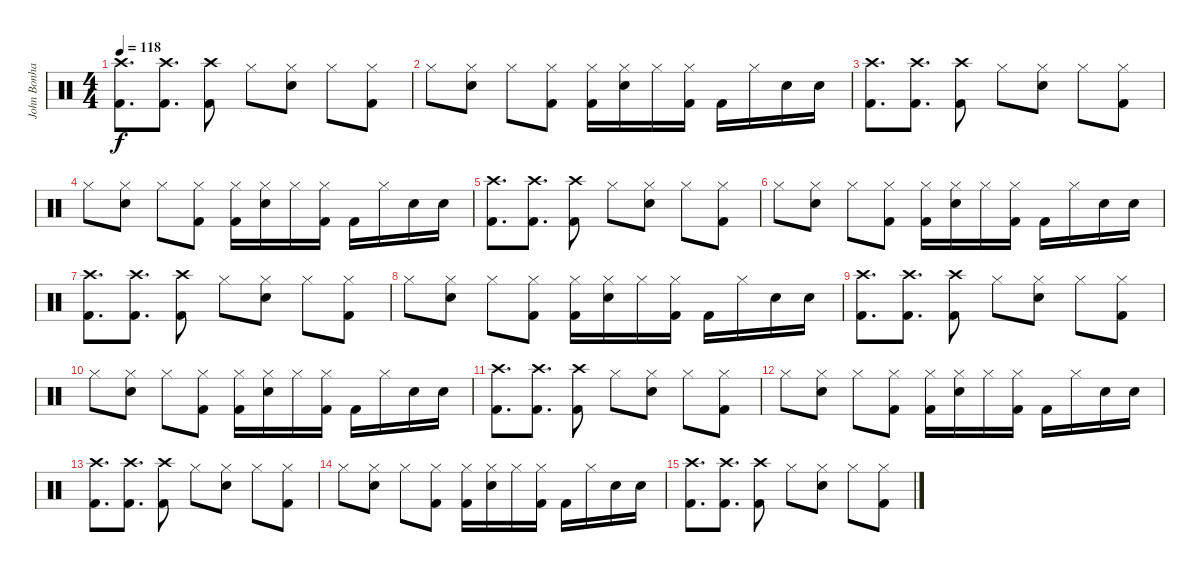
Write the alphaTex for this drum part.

\track ("John Bonham (Bateria)" "John Bonha") {instrument percussion}
\staff {score}
\articulation defaults
\ts (4 4)
\tempo 118
\clef neutral
\ks c
("Crash high (hit)" "Kick (hit) 2").8{d dy f} ("Kick (hit) 2" "Crash high (hit)").8{d} ("Kick (hit) 2" "Crash high (hit)").8 "Hi-Hat (closed)".8 ("Snare (hit) 2" "Hi-Hat (closed)").8 "Hi-Hat (closed)".8 ("Hi-Hat (closed)" "Kick (hit) 2").8 |
"Hi-Hat (closed)".8 ("Hi-Hat (closed)" "Snare (hit) 2").8 "Hi-Hat (closed)".8 ("Kick (hit) 2" "Hi-Hat (closed)").8 ("Kick (hit) 2" "Hi-Hat (closed)").16 ("Hi-Hat (closed)" "Snare (hit) 2").16 "Hi-Hat (closed)".16 ("Kick (hit) 2" "Hi-Hat (closed)").16 "Kick (hit) 2".16 "Hi-Hat (closed)".16 "Snare (hit) 2".16 "Snare (hit) 2".16 |
("Crash high (hit)" "Kick (hit) 2").8{d} ("Kick (hit) 2" "Crash high (hit)").8{d} ("Kick (hit) 2" "Crash high (hit)").8 "Hi-Hat (closed)".8 ("Snare (hit) 2" "Hi-Hat (closed)").8 "Hi-Hat (closed)".8 ("Hi-Hat (closed)" "Kick (hit) 2").8 |
"Hi-Hat (closed)".8 ("Hi-Hat (closed)" "Snare (hit) 2").8 "Hi-Hat (closed)".8 ("Kick (hit) 2" "Hi-Hat (closed)").8 ("Kick (hit) 2" "Hi-Hat (closed)").16 ("Hi-Hat (closed)" "Snare (hit) 2").16 "Hi-Hat (closed)".16 ("Kick (hit) 2" "Hi-Hat (closed)").16 "Kick (hit) 2".16 "Hi-Hat (closed)".16 "Snare (hit) 2".16 "Snare (hit) 2".16 |
("Crash high (hit)" "Kick (hit) 2").8{d} ("Kick (hit) 2" "Crash high (hit)").8{d} ("Kick (hit) 2" "Crash high (hit)").8 "Hi-Hat (closed)".8 ("Snare (hit) 2" "Hi-Hat (closed)").8 "Hi-Hat (closed)".8 ("Hi-Hat (closed)" "Kick (hit) 2").8 |
"Hi-Hat (closed)".8 ("Hi-Hat (closed)" "Snare (hit) 2").8 "Hi-Hat (closed)".8 ("Kick (hit) 2" "Hi-Hat (closed)").8 ("Kick (hit) 2" "Hi-Hat (closed)").16 ("Hi-Hat (closed)" "Snare (hit) 2").16 "Hi-Hat (closed)".16 ("Kick (hit) 2" "Hi-Hat (closed)").16 "Kick (hit) 2".16 "Hi-Hat (closed)".16 "Snare (hit) 2".16 "Snare (hit) 2".16 |
("Crash high (hit)" "Kick (hit) 2").8{d} ("Kick (hit) 2" "Crash high (hit)").8{d} ("Kick (hit) 2" "Crash high (hit)").8 "Hi-Hat (closed)".8 ("Snare (hit) 2" "Hi-Hat (closed)").8 "Hi-Hat (closed)".8 ("Hi-Hat (closed)" "Kick (hit) 2").8 |
"Hi-Hat (closed)".8 ("Hi-Hat (closed)" "Snare (hit) 2").8 "Hi-Hat (closed)".8 ("Kick (hit) 2" "Hi-Hat (closed)").8 ("Kick (hit) 2" "Hi-Hat (closed)").16 ("Hi-Hat (closed)" "Snare (hit) 2").16 "Hi-Hat (closed)".16 ("Kick (hit) 2" "Hi-Hat (closed)").16 "Kick (hit) 2".16 "Hi-Hat (closed)".16 "Snare (hit) 2".16 "Snare (hit) 2".16 |
("Crash high (hit)" "Kick (hit) 2").8{d} ("Kick (hit) 2" "Crash high (hit)").8{d} ("Kick (hit) 2" "Crash high (hit)").8 "Hi-Hat (closed)".8 ("Snare (hit) 2" "Hi-Hat (closed)").8 "Hi-Hat (closed)".8 ("Hi-Hat (closed)" "Kick (hit) 2").8 |
"Hi-Hat (closed)".8 ("Hi-Hat (closed)" "Snare (hit) 2").8 "Hi-Hat (closed)".8 ("Kick (hit) 2" "Hi-Hat (closed)").8 ("Kick (hit) 2" "Hi-Hat (closed)").16 ("Hi-Hat (closed)" "Snare (hit) 2").16 "Hi-Hat (closed)".16 ("Kick (hit) 2" "Hi-Hat (closed)").16 "Kick (hit) 2".16 "Hi-Hat (closed)".16 "Snare (hit) 2".16 "Snare (hit) 2".16 |
("Crash high (hit)" "Kick (hit) 2").8{d} ("Kick (hit) 2" "Crash high (hit)").8{d} ("Kick (hit) 2" "Crash high (hit)").8 "Hi-Hat (closed)".8 ("Snare (hit) 2" "Hi-Hat (closed)").8 "Hi-Hat (closed)".8 ("Hi-Hat (closed)" "Kick (hit) 2").8 |
"Hi-Hat (closed)".8 ("Hi-Hat (closed)" "Snare (hit) 2").8 "Hi-Hat (closed)".8 ("Kick (hit) 2" "Hi-Hat (closed)").8 ("Kick (hit) 2" "Hi-Hat (closed)").16 ("Hi-Hat (closed)" "Snare (hit) 2").16 "Hi-Hat (closed)".16 ("Kick (hit) 2" "Hi-Hat (closed)").16 "Kick (hit) 2".16 "Hi-Hat (closed)".16 "Snare (hit) 2".16 "Snare (hit) 2".16 |
("Crash high (hit)" "Kick (hit) 2").8{d} ("Kick (hit) 2" "Crash high (hit)").8{d} ("Kick (hit) 2" "Crash high (hit)").8 "Hi-Hat (closed)".8 ("Snare (hit) 2" "Hi-Hat (closed)").8 "Hi-Hat (closed)".8 ("Hi-Hat (closed)" "Kick (hit) 2").8 |
"Hi-Hat (closed)".8 ("Hi-Hat (closed)" "Snare (hit) 2").8 "Hi-Hat (closed)".8 ("Kick (hit) 2" "Hi-Hat (closed)").8 ("Kick (hit) 2" "Hi-Hat (closed)").16 ("Hi-Hat (closed)" "Snare (hit) 2").16 "Hi-Hat (closed)".16 ("Kick (hit) 2" "Hi-Hat (closed)").16 "Kick (hit) 2".16 "Hi-Hat (closed)".16 "Snare (hit) 2".16 "Snare (hit) 2".16 |
("Crash high (hit)" "Kick (hit) 2").8{d} ("Kick (hit) 2" "Crash high (hit)").8{d} ("Kick (hit) 2" "Crash high (hit)").8 "Hi-Hat (closed)".8 ("Snare (hit) 2" "Hi-Hat (closed)").8 "Hi-Hat (closed)".8 ("Hi-Hat (closed)" "Kick (hit) 2").8
